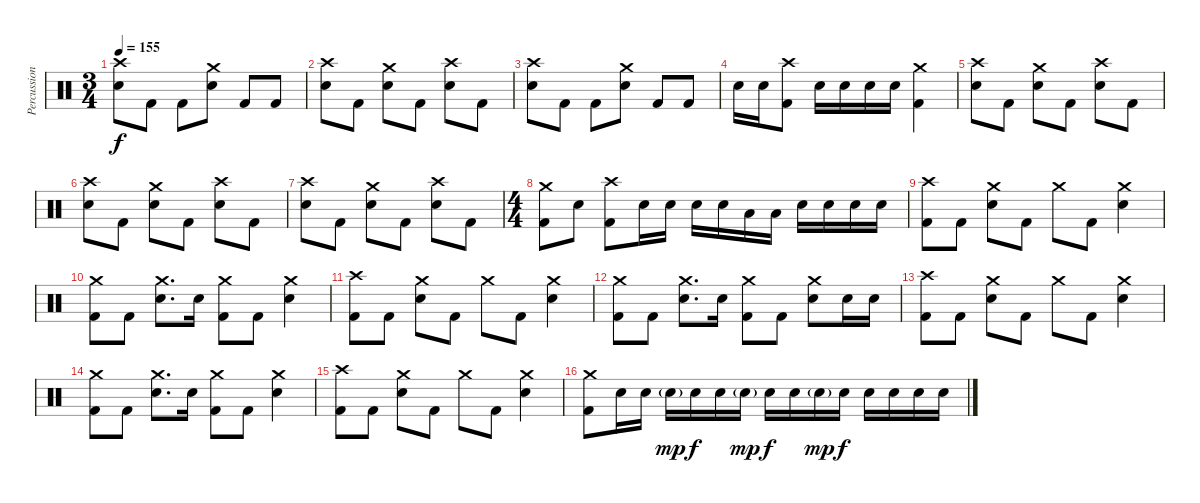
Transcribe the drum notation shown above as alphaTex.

\track ("Percussion" "Percussion") {instrument percussion}
\staff {score}
\articulation defaults
\ts (3 4)
\tempo 155
\clef neutral
\ks c
("Crash high (hit)" "Electric Snare (hit)").8{dy f} "Kick (hit) 2".8 "Kick (hit) 2".8 ("Crash medium (hit)" "Electric Snare (hit)").8 "Kick (hit) 2".8 "Kick (hit) 2".8 |
("Crash high (hit)" "Electric Snare (hit)").8 "Kick (hit) 2".8 ("Crash medium (hit)" "Electric Snare (hit)").8 "Kick (hit) 2".8 ("Crash high (hit)" "Electric Snare (hit)").8 "Kick (hit) 2".8 |
("Crash high (hit)" "Electric Snare (hit)").8 "Kick (hit) 2".8 "Kick (hit) 2".8 ("Crash medium (hit)" "Electric Snare (hit)").8 "Kick (hit) 2".8 "Kick (hit) 2".8 |
"Electric Snare (hit)".16 "Electric Snare (hit)".16 ("Crash high (hit)" "Kick (hit) 2").8 "Electric Snare (hit)".16 "Electric Snare (hit)".16 "Electric Snare (hit)".16 "Electric Snare (hit)".16 ("Crash medium (hit)" "Kick (hit) 2").4 |
("Crash high (hit)" "Electric Snare (hit)").8 "Kick (hit) 2".8 ("Crash medium (hit)" "Electric Snare (hit)").8 "Kick (hit) 2".8 ("Crash high (hit)" "Electric Snare (hit)").8 "Kick (hit) 2".8 |
("Crash high (hit)" "Electric Snare (hit)").8 "Kick (hit) 2".8 ("Crash medium (hit)" "Electric Snare (hit)").8 "Kick (hit) 2".8 ("Crash high (hit)" "Electric Snare (hit)").8 "Kick (hit) 2".8 |
("Crash high (hit)" "Electric Snare (hit)").8 "Kick (hit) 2".8 ("Crash medium (hit)" "Electric Snare (hit)").8 "Kick (hit) 2".8 ("Crash high (hit)" "Electric Snare (hit)").8 "Kick (hit) 2".8 |
\ts (4 4)
("Crash medium (hit)" "Kick (hit) 2").8 "Electric Snare (hit)".8 ("Crash high (hit)" "Kick (hit) 2").8 "Electric Snare (hit)".16 "Electric Snare (hit)".16 "Electric Snare (hit)".16 "Electric Snare (hit)".16 "Low Tom (hit)".16 "Low Tom (hit)".16 "Electric Snare (hit)".16 "Electric Snare (hit)".16 "Electric Snare (hit)".16 "Electric Snare (hit)".16 |
("Crash high (hit)" "Kick (hit) 2").8 "Kick (hit) 2".8 ("Crash medium (hit)" "Electric Snare (hit)").8 "Kick (hit) 2".8 "Crash medium (hit)".8 "Kick (hit) 2".8 ("Crash medium (hit)" "Electric Snare (hit)").4 |
("Crash medium (hit)" "Kick (hit) 2").8 "Kick (hit) 2".8 ("Crash medium (hit)" "Electric Snare (hit)").8{d} "Electric Snare (hit)".16 ("Crash medium (hit)" "Kick (hit) 2").8 "Kick (hit) 2".8 ("Crash medium (hit)" "Electric Snare (hit)").4 |
("Crash high (hit)" "Kick (hit) 2").8 "Kick (hit) 2".8 ("Crash medium (hit)" "Electric Snare (hit)").8 "Kick (hit) 2".8 "Crash medium (hit)".8 "Kick (hit) 2".8 ("Crash medium (hit)" "Electric Snare (hit)").4 |
("Crash medium (hit)" "Kick (hit) 2").8 "Kick (hit) 2".8 ("Crash medium (hit)" "Electric Snare (hit)").8{d} "Electric Snare (hit)".16 ("Crash medium (hit)" "Kick (hit) 2").8 "Kick (hit) 2".8 ("Crash medium (hit)" "Electric Snare (hit)").8 "Electric Snare (hit)".16 "Electric Snare (hit)".16 |
("Crash high (hit)" "Kick (hit) 2").8 "Kick (hit) 2".8 ("Crash medium (hit)" "Electric Snare (hit)").8 "Kick (hit) 2".8 "Crash medium (hit)".8 "Kick (hit) 2".8 ("Crash medium (hit)" "Electric Snare (hit)").4 |
("Crash medium (hit)" "Kick (hit) 2").8 "Kick (hit) 2".8 ("Crash medium (hit)" "Electric Snare (hit)").8{d} "Electric Snare (hit)".16 ("Crash medium (hit)" "Kick (hit) 2").8 "Kick (hit) 2".8 ("Crash medium (hit)" "Electric Snare (hit)").4 |
("Crash high (hit)" "Kick (hit) 2").8 "Kick (hit) 2".8 ("Crash medium (hit)" "Electric Snare (hit)").8 "Kick (hit) 2".8 "Crash medium (hit)".8 "Kick (hit) 2".8 ("Crash medium (hit)" "Electric Snare (hit)").4 |
("Crash medium (hit)" "Kick (hit) 2").8 "Electric Snare (hit)".16 "Electric Snare (hit)".16 "Electric Snare (hit)"{g}.16{dy mp} "Electric Snare (hit)".16{dy f} "Electric Snare (hit)".16 "Electric Snare (hit)"{g}.16{dy mp} "Electric Snare (hit)".16{dy f} "Electric Snare (hit)".16 "Electric Snare (hit)"{g}.16{dy mp} "Electric Snare (hit)".16{dy f} "Electric Snare (hit)".16 "Electric Snare (hit)".16 "Electric Snare (hit)".16 "Electric Snare (hit)".16
